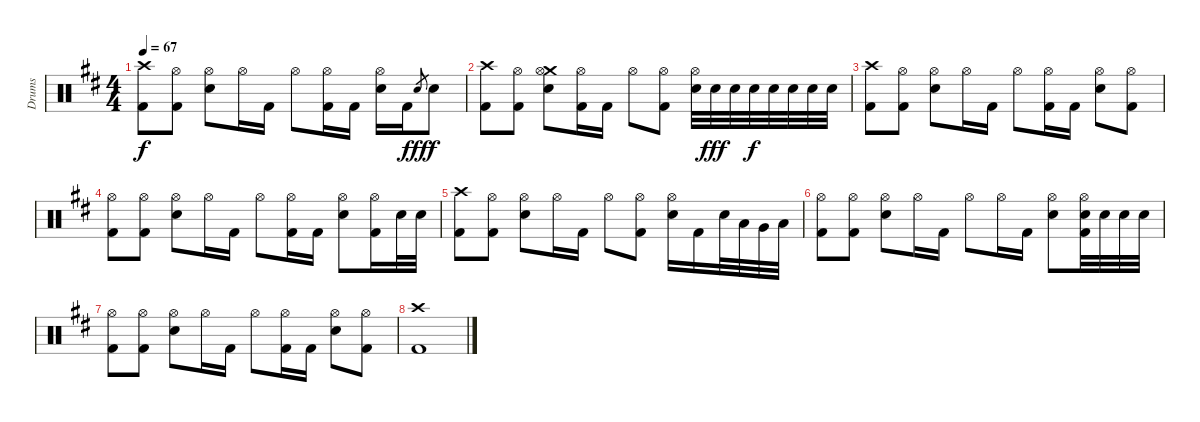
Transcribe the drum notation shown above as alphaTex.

\track ("Drums" "Drums") {instrument percussion}
\staff {score}
\articulation defaults
\ts (4 4)
\tempo 67
\clef neutral
\ks bminor
("Crash high (hit)" "Kick (hit) 2").8{dy f} ("Hi-Hat (open)" "Kick (hit) 2").8 ("Hi-Hat (open)" "Electric Snare (hit)").8 "Hi-Hat (open)".16 "Kick (hit) 2".16 "Hi-Hat (open)".8 ("Hi-Hat (open)" "Kick (hit) 2").16 "Kick (hit) 2".16 ("Hi-Hat (open)" "Electric Snare (hit)").16 "Kick (hit) 2".16 "Electric Snare (hit)".8{gr dy fff} "Electric Snare (hit)".8{dy f} |
("Crash high (hit)" "Kick (hit) 2").8 ("Hi-Hat (open)" "Kick (hit) 2").8 ("Crash medium (hit)" "Hi-Hat (open)" "Electric Snare (hit)").8 ("Hi-Hat (open)" "Kick (hit) 2").16 "Kick (hit) 2".16 "Hi-Hat (open)".8 ("Hi-Hat (open)" "Kick (hit) 2").8 ("Hi-Hat (open)" "Electric Snare (hit)").32 "Electric Snare (hit)".32{dy fff} "Electric Snare (hit)".32 "Electric Snare (hit)".32{dy f} "Electric Snare (hit)".32 "Electric Snare (hit)".32 "Electric Snare (hit)".32 "Electric Snare (hit)".32 |
("Crash high (hit)" "Kick (hit) 2").8 ("Hi-Hat (open)" "Kick (hit) 2").8 ("Hi-Hat (open)" "Electric Snare (hit)").8 "Hi-Hat (open)".16 "Kick (hit) 2".16 "Hi-Hat (open)".8 ("Hi-Hat (open)" "Kick (hit) 2").16 "Kick (hit) 2".16 ("Hi-Hat (open)" "Electric Snare (hit)").8 ("Hi-Hat (open)" "Kick (hit) 2").8 |
("Hi-Hat (open)" "Kick (hit) 2").8 ("Hi-Hat (open)" "Kick (hit) 2").8 ("Hi-Hat (open)" "Electric Snare (hit)").8 "Hi-Hat (open)".16 "Kick (hit) 2".16 "Hi-Hat (open)".8 ("Hi-Hat (open)" "Kick (hit) 2").16 "Kick (hit) 2".16 ("Hi-Hat (open)" "Electric Snare (hit)").8 ("Hi-Hat (open)" "Kick (hit) 2").16 "Electric Snare (hit)".32 "Electric Snare (hit)".32 |
("Crash high (hit)" "Kick (hit) 2").8 ("Hi-Hat (open)" "Kick (hit) 2").8 ("Hi-Hat (open)" "Electric Snare (hit)").8 "Hi-Hat (open)".16 "Kick (hit) 2".16 "Hi-Hat (open)".8 ("Hi-Hat (open)" "Kick (hit) 2").8 ("Hi-Hat (open)" "Electric Snare (hit)").16 "Kick (hit) 2".16 "Electric Snare (hit)".32 "Low Tom (hit)".32 "Very Low Tom (hit)".32 "Low Floor Tom (hit)".32 |
("Hi-Hat (open)" "Kick (hit) 2").8 ("Hi-Hat (open)" "Kick (hit) 2").8 ("Hi-Hat (open)" "Electric Snare (hit)").8 "Hi-Hat (open)".16 "Kick (hit) 2".16 "Hi-Hat (open)".8 "Hi-Hat (open)".16 "Kick (hit) 2".16 ("Hi-Hat (open)" "Electric Snare (hit)").8 ("Hi-Hat (open)" "Electric Snare (hit)" "Kick (hit) 2").32 "Electric Snare (hit)".32 "Electric Snare (hit)".32 "Electric Snare (hit)".32 |
("Hi-Hat (open)" "Kick (hit) 2").8 ("Hi-Hat (open)" "Kick (hit) 2").8 ("Hi-Hat (open)" "Electric Snare (hit)").8 "Hi-Hat (open)".16 "Kick (hit) 2".16 "Hi-Hat (open)".8 ("Hi-Hat (open)" "Kick (hit) 2").16 "Kick (hit) 2".16 ("Hi-Hat (open)" "Electric Snare (hit)").8 ("Hi-Hat (open)" "Kick (hit) 2").8 |
("Crash high (hit)" "Kick (hit) 2").1
